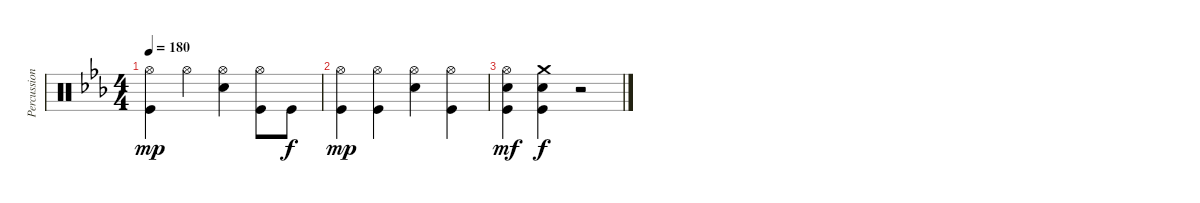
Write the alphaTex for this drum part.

\track ("Percussion" "Percussion") {instrument percussion}
\staff {score}
\articulation defaults
\ts (4 4)
\tempo 180
\clef neutral
\ks cminor
("Hi-Hat (open)" "Kick (hit)").4{dy mp} "Hi-Hat (open)".4 ("Hi-Hat (open)" "Snare (hit) 2").4 ("Hi-Hat (open)" "Kick (hit)").8 "Kick (hit)".8{dy f} |
("Hi-Hat (open)" "Kick (hit)").4{dy mp} ("Hi-Hat (open)" "Kick (hit)").4 ("Hi-Hat (open)" "Snare (hit) 2").4 ("Hi-Hat (open)" "Kick (hit)").4 |
("Hi-Hat (open)" "Snare (hit) 2" "Kick (hit)").4{dy mf} ("Crash medium (hit)" "Snare (hit) 2" "Kick (hit)").4{dy f} r.2
